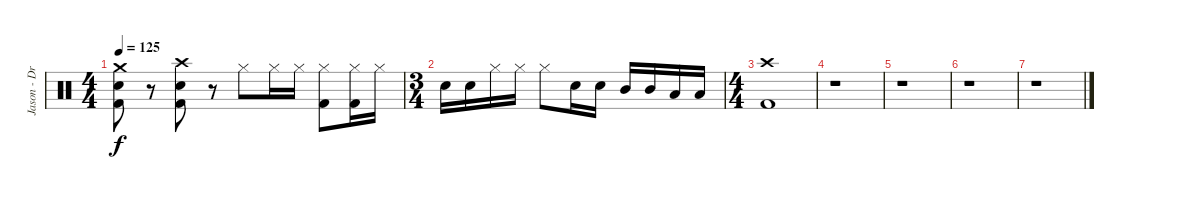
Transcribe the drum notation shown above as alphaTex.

\track ("Jason - Drums" "Jason - Dr") {instrument percussion}
\staff {score}
\articulation defaults
\ts (4 4)
\tempo 125
\clef neutral
\ks c
("Crash medium (hit)" "Electric Snare (hit)" "Kick (hit) 2").8{dy f} r.8 ("Crash high (hit)" "Electric Snare (hit)" "Kick (hit) 2").8 r.8 "Hi-Hat (closed)".8 "Hi-Hat (closed)".16 "Hi-Hat (closed)".16 ("Hi-Hat (closed)" "Kick (hit) 2").8 ("Hi-Hat (closed)" "Kick (hit) 2").16 "Hi-Hat (closed)".16 |
\ts (3 4)
"Electric Snare (hit)".16 "Electric Snare (hit)".16 "Hi-Hat (closed)".16 "Hi-Hat (closed)".16 "Hi-Hat (closed)".8 "Electric Snare (hit)".16 "Electric Snare (hit)".16 "Mid Tom (hit)".16 "Mid Tom (hit)".16 "Low Tom (hit)".16 "Low Tom (hit)".16 |
\ts (4 4)
("Crash high (hit)" "Kick (hit) 2").1 |
r.1 |
r.1 |
r.1 |
r.1
